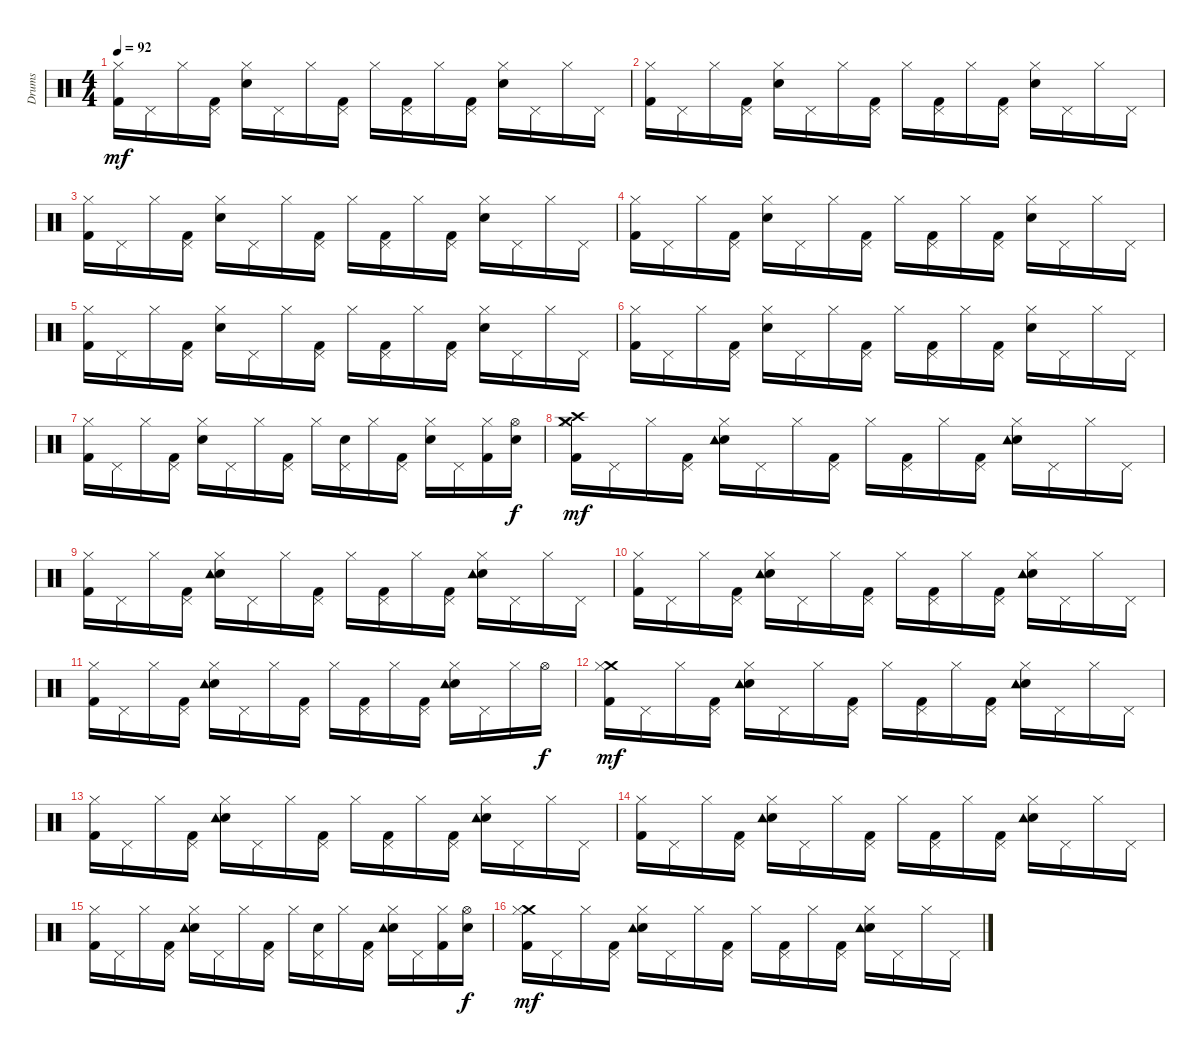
\track ("Drums" "Drums") {instrument percussion}
\staff {score}
\articulation defaults
\ts (4 4)
\tempo 92
\clef neutral
\ks c
("Kick (hit) 2" "Hi-Hat (closed)").16{dy mf} "Pedal Hi-Hat (hit)".16 "Hi-Hat (closed)".16 ("Kick (hit) 2" "Pedal Hi-Hat (hit)").16 ("Electric Snare (hit)" "Hi-Hat (closed)").16 "Pedal Hi-Hat (hit)".16 "Hi-Hat (closed)".16 ("Kick (hit) 2" "Pedal Hi-Hat (hit)").16 "Hi-Hat (closed)".16 ("Kick (hit) 2" "Pedal Hi-Hat (hit)").16 "Hi-Hat (closed)".16 ("Kick (hit) 2" "Pedal Hi-Hat (hit)").16 ("Electric Snare (hit)" "Hi-Hat (closed)").16 "Pedal Hi-Hat (hit)".16 "Hi-Hat (closed)".16 "Pedal Hi-Hat (hit)".16 |
("Kick (hit) 2" "Hi-Hat (closed)").16 "Pedal Hi-Hat (hit)".16 "Hi-Hat (closed)".16 ("Kick (hit) 2" "Pedal Hi-Hat (hit)").16 ("Electric Snare (hit)" "Hi-Hat (closed)").16 "Pedal Hi-Hat (hit)".16 "Hi-Hat (closed)".16 ("Kick (hit) 2" "Pedal Hi-Hat (hit)").16 "Hi-Hat (closed)".16 ("Kick (hit) 2" "Pedal Hi-Hat (hit)").16 "Hi-Hat (closed)".16 ("Kick (hit) 2" "Pedal Hi-Hat (hit)").16 ("Electric Snare (hit)" "Hi-Hat (closed)").16 "Pedal Hi-Hat (hit)".16 "Hi-Hat (closed)".16 "Pedal Hi-Hat (hit)".16 |
("Kick (hit) 2" "Hi-Hat (closed)").16 "Pedal Hi-Hat (hit)".16 "Hi-Hat (closed)".16 ("Kick (hit) 2" "Pedal Hi-Hat (hit)").16 ("Electric Snare (hit)" "Hi-Hat (closed)").16 "Pedal Hi-Hat (hit)".16 "Hi-Hat (closed)".16 ("Kick (hit) 2" "Pedal Hi-Hat (hit)").16 "Hi-Hat (closed)".16 ("Kick (hit) 2" "Pedal Hi-Hat (hit)").16 "Hi-Hat (closed)".16 ("Kick (hit) 2" "Pedal Hi-Hat (hit)").16 ("Electric Snare (hit)" "Hi-Hat (closed)").16 "Pedal Hi-Hat (hit)".16 "Hi-Hat (closed)".16 "Pedal Hi-Hat (hit)".16 |
("Kick (hit) 2" "Hi-Hat (closed)").16 "Pedal Hi-Hat (hit)".16 "Hi-Hat (closed)".16 ("Kick (hit) 2" "Pedal Hi-Hat (hit)").16 ("Electric Snare (hit)" "Hi-Hat (closed)").16 "Pedal Hi-Hat (hit)".16 "Hi-Hat (closed)".16 ("Kick (hit) 2" "Pedal Hi-Hat (hit)").16 "Hi-Hat (closed)".16 ("Kick (hit) 2" "Pedal Hi-Hat (hit)").16 "Hi-Hat (closed)".16 ("Kick (hit) 2" "Pedal Hi-Hat (hit)").16 ("Electric Snare (hit)" "Hi-Hat (closed)").16 "Pedal Hi-Hat (hit)".16 "Hi-Hat (closed)".16 "Pedal Hi-Hat (hit)".16 |
("Kick (hit) 2" "Hi-Hat (closed)").16 "Pedal Hi-Hat (hit)".16 "Hi-Hat (closed)".16 ("Kick (hit) 2" "Pedal Hi-Hat (hit)").16 ("Electric Snare (hit)" "Hi-Hat (closed)").16 "Pedal Hi-Hat (hit)".16 "Hi-Hat (closed)".16 ("Kick (hit) 2" "Pedal Hi-Hat (hit)").16 "Hi-Hat (closed)".16 ("Kick (hit) 2" "Pedal Hi-Hat (hit)").16 "Hi-Hat (closed)".16 ("Kick (hit) 2" "Pedal Hi-Hat (hit)").16 ("Electric Snare (hit)" "Hi-Hat (closed)").16 "Pedal Hi-Hat (hit)".16 "Hi-Hat (closed)".16 "Pedal Hi-Hat (hit)".16 |
("Kick (hit) 2" "Hi-Hat (closed)").16 "Pedal Hi-Hat (hit)".16 "Hi-Hat (closed)".16 ("Kick (hit) 2" "Pedal Hi-Hat (hit)").16 ("Electric Snare (hit)" "Hi-Hat (closed)").16 "Pedal Hi-Hat (hit)".16 "Hi-Hat (closed)".16 ("Kick (hit) 2" "Pedal Hi-Hat (hit)").16 "Hi-Hat (closed)".16 ("Kick (hit) 2" "Pedal Hi-Hat (hit)").16 "Hi-Hat (closed)".16 ("Kick (hit) 2" "Pedal Hi-Hat (hit)").16 ("Electric Snare (hit)" "Hi-Hat (closed)").16 "Pedal Hi-Hat (hit)".16 "Hi-Hat (closed)".16 "Pedal Hi-Hat (hit)".16 |
("Kick (hit) 2" "Hi-Hat (closed)").16 "Pedal Hi-Hat (hit)".16 "Hi-Hat (closed)".16 ("Kick (hit) 2" "Pedal Hi-Hat (hit)").16 ("Electric Snare (hit)" "Hi-Hat (closed)").16 "Pedal Hi-Hat (hit)".16 "Hi-Hat (closed)".16 ("Kick (hit) 2" "Pedal Hi-Hat (hit)").16 "Hi-Hat (closed)".16 ("Electric Snare (hit)" "Pedal Hi-Hat (hit)").16 "Hi-Hat (closed)".16 ("Kick (hit) 2" "Pedal Hi-Hat (hit)").16 ("Electric Snare (hit)" "Hi-Hat (closed)").16 "Pedal Hi-Hat (hit)".16 ("Kick (hit) 2" "Hi-Hat (closed)").16 ("Electric Snare (hit)" "Hi-Hat (open)").16{dy f} |
("Crash high (hit)" "Crash medium (hit)" "Kick (hit) 2" "Hi-Hat (closed)").16{dy mf} "Pedal Hi-Hat (hit)".16 "Hi-Hat (closed)".16 ("Kick (hit) 2" "Pedal Hi-Hat (hit)").16 ("Electric Snare (hit)" "Hi-Hat (closed)" "Tambourine (hit)").16 "Pedal Hi-Hat (hit)".16 "Hi-Hat (closed)".16 ("Kick (hit) 2" "Pedal Hi-Hat (hit)").16 "Hi-Hat (closed)".16 ("Kick (hit) 2" "Pedal Hi-Hat (hit)").16 "Hi-Hat (closed)".16 ("Kick (hit) 2" "Pedal Hi-Hat (hit)").16 ("Electric Snare (hit)" "Hi-Hat (closed)" "Tambourine (hit)").16 "Pedal Hi-Hat (hit)".16 "Hi-Hat (closed)".16 "Pedal Hi-Hat (hit)".16 |
("Kick (hit) 2" "Hi-Hat (closed)").16 "Pedal Hi-Hat (hit)".16 "Hi-Hat (closed)".16 ("Kick (hit) 2" "Pedal Hi-Hat (hit)").16 ("Electric Snare (hit)" "Hi-Hat (closed)" "Tambourine (hit)").16 "Pedal Hi-Hat (hit)".16 "Hi-Hat (closed)".16 ("Kick (hit) 2" "Pedal Hi-Hat (hit)").16 "Hi-Hat (closed)".16 ("Kick (hit) 2" "Pedal Hi-Hat (hit)").16 "Hi-Hat (closed)".16 ("Kick (hit) 2" "Pedal Hi-Hat (hit)").16 ("Electric Snare (hit)" "Hi-Hat (closed)" "Tambourine (hit)").16 "Pedal Hi-Hat (hit)".16 "Hi-Hat (closed)".16 "Pedal Hi-Hat (hit)".16 |
("Kick (hit) 2" "Hi-Hat (closed)").16 "Pedal Hi-Hat (hit)".16 "Hi-Hat (closed)".16 ("Kick (hit) 2" "Pedal Hi-Hat (hit)").16 ("Electric Snare (hit)" "Hi-Hat (closed)" "Tambourine (hit)").16 "Pedal Hi-Hat (hit)".16 "Hi-Hat (closed)".16 ("Kick (hit) 2" "Pedal Hi-Hat (hit)").16 "Hi-Hat (closed)".16 ("Kick (hit) 2" "Pedal Hi-Hat (hit)").16 "Hi-Hat (closed)".16 ("Kick (hit) 2" "Pedal Hi-Hat (hit)").16 ("Electric Snare (hit)" "Hi-Hat (closed)" "Tambourine (hit)").16 "Pedal Hi-Hat (hit)".16 "Hi-Hat (closed)".16 "Pedal Hi-Hat (hit)".16 |
("Kick (hit) 2" "Hi-Hat (closed)").16 "Pedal Hi-Hat (hit)".16 "Hi-Hat (closed)".16 ("Kick (hit) 2" "Pedal Hi-Hat (hit)").16 ("Electric Snare (hit)" "Hi-Hat (closed)" "Tambourine (hit)").16 "Pedal Hi-Hat (hit)".16 "Hi-Hat (closed)".16 ("Kick (hit) 2" "Pedal Hi-Hat (hit)").16 "Hi-Hat (closed)".16 ("Kick (hit) 2" "Pedal Hi-Hat (hit)").16 "Hi-Hat (closed)".16 ("Kick (hit) 2" "Pedal Hi-Hat (hit)").16 ("Electric Snare (hit)" "Hi-Hat (closed)" "Tambourine (hit)").16 "Pedal Hi-Hat (hit)".16 "Hi-Hat (closed)".16 "Hi-Hat (open)".16{dy f} |
("Crash medium (hit)" "Kick (hit) 2" "Hi-Hat (closed)").16{dy mf} "Pedal Hi-Hat (hit)".16 "Hi-Hat (closed)".16 ("Kick (hit) 2" "Pedal Hi-Hat (hit)").16 ("Electric Snare (hit)" "Hi-Hat (closed)" "Tambourine (hit)").16 "Pedal Hi-Hat (hit)".16 "Hi-Hat (closed)".16 ("Kick (hit) 2" "Pedal Hi-Hat (hit)").16 "Hi-Hat (closed)".16 ("Kick (hit) 2" "Pedal Hi-Hat (hit)").16 "Hi-Hat (closed)".16 ("Kick (hit) 2" "Pedal Hi-Hat (hit)").16 ("Electric Snare (hit)" "Hi-Hat (closed)" "Tambourine (hit)").16 "Pedal Hi-Hat (hit)".16 "Hi-Hat (closed)".16 "Pedal Hi-Hat (hit)".16 |
("Kick (hit) 2" "Hi-Hat (closed)").16 "Pedal Hi-Hat (hit)".16 "Hi-Hat (closed)".16 ("Kick (hit) 2" "Pedal Hi-Hat (hit)").16 ("Electric Snare (hit)" "Hi-Hat (closed)" "Tambourine (hit)").16 "Pedal Hi-Hat (hit)".16 "Hi-Hat (closed)".16 ("Kick (hit) 2" "Pedal Hi-Hat (hit)").16 "Hi-Hat (closed)".16 ("Kick (hit) 2" "Pedal Hi-Hat (hit)").16 "Hi-Hat (closed)".16 ("Kick (hit) 2" "Pedal Hi-Hat (hit)").16 ("Electric Snare (hit)" "Hi-Hat (closed)" "Tambourine (hit)").16 "Pedal Hi-Hat (hit)".16 "Hi-Hat (closed)".16 "Pedal Hi-Hat (hit)".16 |
("Kick (hit) 2" "Hi-Hat (closed)").16 "Pedal Hi-Hat (hit)".16 "Hi-Hat (closed)".16 ("Kick (hit) 2" "Pedal Hi-Hat (hit)").16 ("Electric Snare (hit)" "Hi-Hat (closed)" "Tambourine (hit)").16 "Pedal Hi-Hat (hit)".16 "Hi-Hat (closed)".16 ("Kick (hit) 2" "Pedal Hi-Hat (hit)").16 "Hi-Hat (closed)".16 ("Kick (hit) 2" "Pedal Hi-Hat (hit)").16 "Hi-Hat (closed)".16 ("Kick (hit) 2" "Pedal Hi-Hat (hit)").16 ("Electric Snare (hit)" "Hi-Hat (closed)" "Tambourine (hit)").16 "Pedal Hi-Hat (hit)".16 "Hi-Hat (closed)".16 "Pedal Hi-Hat (hit)".16 |
("Kick (hit) 2" "Hi-Hat (closed)").16 "Pedal Hi-Hat (hit)".16 "Hi-Hat (closed)".16 ("Kick (hit) 2" "Pedal Hi-Hat (hit)").16 ("Electric Snare (hit)" "Hi-Hat (closed)" "Tambourine (hit)").16 "Pedal Hi-Hat (hit)".16 "Hi-Hat (closed)".16 ("Kick (hit) 2" "Pedal Hi-Hat (hit)").16 "Hi-Hat (closed)".16 ("Electric Snare (hit)" "Pedal Hi-Hat (hit)").16 "Hi-Hat (closed)".16 ("Kick (hit) 2" "Pedal Hi-Hat (hit)").16 ("Electric Snare (hit)" "Hi-Hat (closed)" "Tambourine (hit)").16 "Pedal Hi-Hat (hit)".16 ("Kick (hit) 2" "Hi-Hat (closed)").16 ("Electric Snare (hit)" "Hi-Hat (open)").16{dy f} |
("Kick (hit) 2" "Crash medium (hit)" "Hi-Hat (closed)").16{dy mf} "Pedal Hi-Hat (hit)".16 "Hi-Hat (closed)".16 ("Kick (hit) 2" "Pedal Hi-Hat (hit)").16 ("Electric Snare (hit)" "Hi-Hat (closed)" "Tambourine (hit)").16 "Pedal Hi-Hat (hit)".16 "Hi-Hat (closed)".16 ("Kick (hit) 2" "Pedal Hi-Hat (hit)").16 "Hi-Hat (closed)".16 ("Kick (hit) 2" "Pedal Hi-Hat (hit)").16 "Hi-Hat (closed)".16 ("Kick (hit) 2" "Pedal Hi-Hat (hit)").16 ("Electric Snare (hit)" "Hi-Hat (closed)" "Tambourine (hit)").16 "Pedal Hi-Hat (hit)".16 "Hi-Hat (closed)".16 "Pedal Hi-Hat (hit)".16
